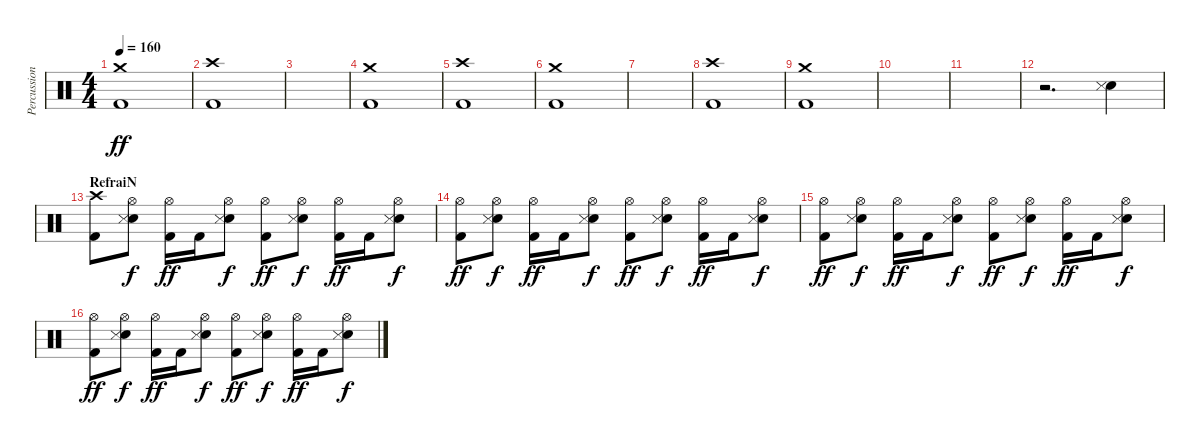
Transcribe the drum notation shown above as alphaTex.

\track ("Percussions" "Percussion") {instrument percussion}
\staff {score}
\articulation defaults
\ts (4 4)
\tempo 160
\clef neutral
\ks c
("Crash medium (hit)" "Kick (hit) 2").1{dy ff} |
("Crash high (hit)" "Kick (hit) 2").1 |
|
("Crash medium (hit)" "Kick (hit) 2").1 |
("Crash high (hit)" "Kick (hit) 2").1 |
("Crash medium (hit)" "Kick (hit) 2").1 |
|
("Crash high (hit)" "Kick (hit) 2").1 |
("Crash medium (hit)" "Kick (hit) 2").1 |
|
|
r.2{d} ("Electric Snare (hit)" "Snare (side stick) 3").4 |
\section ("" "RefraiN")
("Crash high (hit)" "Kick (hit) 2").8 ("Hi-Hat (open)" "Electric Snare (hit)" "Snare (side stick) 3").8{dy f} ("Hi-Hat (open)" "Kick (hit) 2").16{dy ff} "Kick (hit) 2".16 ("Hi-Hat (open)" "Electric Snare (hit)" "Snare (side stick) 3").8{dy f} ("Hi-Hat (open)" "Kick (hit) 2").8{dy ff} ("Hi-Hat (open)" "Electric Snare (hit)" "Snare (side stick) 3").8{dy f} ("Hi-Hat (open)" "Kick (hit) 2").16{dy ff} "Kick (hit) 2".16 ("Hi-Hat (open)" "Electric Snare (hit)" "Snare (side stick) 3").8{dy f} |
("Hi-Hat (open)" "Kick (hit) 2").8{dy ff} ("Hi-Hat (open)" "Electric Snare (hit)" "Snare (side stick) 3").8{dy f} ("Hi-Hat (open)" "Kick (hit) 2").16{dy ff} "Kick (hit) 2".16 ("Hi-Hat (open)" "Electric Snare (hit)" "Snare (side stick) 3").8{dy f} ("Hi-Hat (open)" "Kick (hit) 2").8{dy ff} ("Hi-Hat (open)" "Electric Snare (hit)" "Snare (side stick) 3").8{dy f} ("Hi-Hat (open)" "Kick (hit) 2").16{dy ff} "Kick (hit) 2".16 ("Hi-Hat (open)" "Electric Snare (hit)" "Snare (side stick) 3").8{dy f} |
("Hi-Hat (open)" "Kick (hit) 2").8{dy ff} ("Hi-Hat (open)" "Electric Snare (hit)" "Snare (side stick) 3").8{dy f} ("Hi-Hat (open)" "Kick (hit) 2").16{dy ff} "Kick (hit) 2".16 ("Hi-Hat (open)" "Electric Snare (hit)" "Snare (side stick) 3").8{dy f} ("Hi-Hat (open)" "Kick (hit) 2").8{dy ff} ("Hi-Hat (open)" "Electric Snare (hit)" "Snare (side stick) 3").8{dy f} ("Hi-Hat (open)" "Kick (hit) 2").16{dy ff} "Kick (hit) 2".16 ("Hi-Hat (open)" "Electric Snare (hit)" "Snare (side stick) 3").8{dy f} |
("Hi-Hat (open)" "Kick (hit) 2").8{dy ff} ("Hi-Hat (open)" "Electric Snare (hit)" "Snare (side stick) 3").8{dy f} ("Hi-Hat (open)" "Kick (hit) 2").16{dy ff} "Kick (hit) 2".16 ("Hi-Hat (open)" "Electric Snare (hit)" "Snare (side stick) 3").8{dy f} ("Hi-Hat (open)" "Kick (hit) 2").8{dy ff} ("Hi-Hat (open)" "Electric Snare (hit)" "Snare (side stick) 3").8{dy f} ("Hi-Hat (open)" "Kick (hit) 2").16{dy ff} "Kick (hit) 2".16 ("Hi-Hat (open)" "Electric Snare (hit)" "Snare (side stick) 3").8{dy f}
